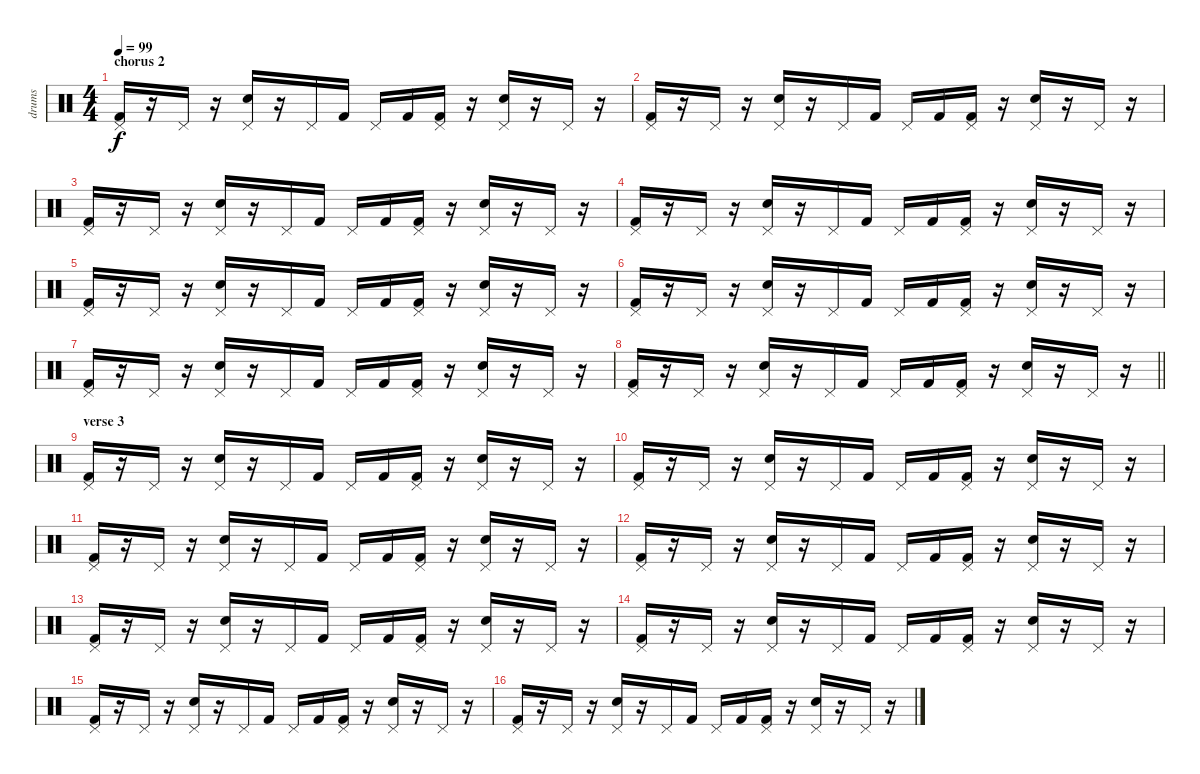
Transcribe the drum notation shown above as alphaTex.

\track ("drums" "drums") {instrument percussion}
\staff {score}
\articulation defaults
\ts (4 4)
\section ("" "chorus 2")
\tempo 99
\clef neutral
\ks c
("Kick (hit) 2" "Pedal Hi-Hat (hit)").16{dy f} r.16 "Pedal Hi-Hat (hit)".16 r.16 ("Snare (hit) 2" "Pedal Hi-Hat (hit)").16 r.16 "Pedal Hi-Hat (hit)".16 "Kick (hit) 2".16 "Pedal Hi-Hat (hit)".16 "Kick (hit) 2".16 ("Kick (hit) 2" "Pedal Hi-Hat (hit)").16 r.16 ("Snare (hit) 2" "Pedal Hi-Hat (hit)").16 r.16 "Pedal Hi-Hat (hit)".16 r.16 |
("Kick (hit) 2" "Pedal Hi-Hat (hit)").16 r.16 "Pedal Hi-Hat (hit)".16 r.16 ("Snare (hit) 2" "Pedal Hi-Hat (hit)").16 r.16 "Pedal Hi-Hat (hit)".16 "Kick (hit) 2".16 "Pedal Hi-Hat (hit)".16 "Kick (hit) 2".16 ("Kick (hit) 2" "Pedal Hi-Hat (hit)").16 r.16 ("Snare (hit) 2" "Pedal Hi-Hat (hit)").16 r.16 "Pedal Hi-Hat (hit)".16 r.16 |
("Kick (hit) 2" "Pedal Hi-Hat (hit)").16 r.16 "Pedal Hi-Hat (hit)".16 r.16 ("Snare (hit) 2" "Pedal Hi-Hat (hit)").16 r.16 "Pedal Hi-Hat (hit)".16 "Kick (hit) 2".16 "Pedal Hi-Hat (hit)".16 "Kick (hit) 2".16 ("Kick (hit) 2" "Pedal Hi-Hat (hit)").16 r.16 ("Snare (hit) 2" "Pedal Hi-Hat (hit)").16 r.16 "Pedal Hi-Hat (hit)".16 r.16 |
("Kick (hit) 2" "Pedal Hi-Hat (hit)").16 r.16 "Pedal Hi-Hat (hit)".16 r.16 ("Snare (hit) 2" "Pedal Hi-Hat (hit)").16 r.16 "Pedal Hi-Hat (hit)".16 "Kick (hit) 2".16 "Pedal Hi-Hat (hit)".16 "Kick (hit) 2".16 ("Kick (hit) 2" "Pedal Hi-Hat (hit)").16 r.16 ("Snare (hit) 2" "Pedal Hi-Hat (hit)").16 r.16 "Pedal Hi-Hat (hit)".16 r.16 |
("Kick (hit) 2" "Pedal Hi-Hat (hit)").16 r.16 "Pedal Hi-Hat (hit)".16 r.16 ("Snare (hit) 2" "Pedal Hi-Hat (hit)").16 r.16 "Pedal Hi-Hat (hit)".16 "Kick (hit) 2".16 "Pedal Hi-Hat (hit)".16 "Kick (hit) 2".16 ("Kick (hit) 2" "Pedal Hi-Hat (hit)").16 r.16 ("Snare (hit) 2" "Pedal Hi-Hat (hit)").16 r.16 "Pedal Hi-Hat (hit)".16 r.16 |
("Kick (hit) 2" "Pedal Hi-Hat (hit)").16 r.16 "Pedal Hi-Hat (hit)".16 r.16 ("Snare (hit) 2" "Pedal Hi-Hat (hit)").16 r.16 "Pedal Hi-Hat (hit)".16 "Kick (hit) 2".16 "Pedal Hi-Hat (hit)".16 "Kick (hit) 2".16 ("Kick (hit) 2" "Pedal Hi-Hat (hit)").16 r.16 ("Snare (hit) 2" "Pedal Hi-Hat (hit)").16 r.16 "Pedal Hi-Hat (hit)".16 r.16 |
("Kick (hit) 2" "Pedal Hi-Hat (hit)").16 r.16 "Pedal Hi-Hat (hit)".16 r.16 ("Snare (hit) 2" "Pedal Hi-Hat (hit)").16 r.16 "Pedal Hi-Hat (hit)".16 "Kick (hit) 2".16 "Pedal Hi-Hat (hit)".16 "Kick (hit) 2".16 ("Kick (hit) 2" "Pedal Hi-Hat (hit)").16 r.16 ("Snare (hit) 2" "Pedal Hi-Hat (hit)").16 r.16 "Pedal Hi-Hat (hit)".16 r.16 |
\barLineRight lightlight
("Kick (hit) 2" "Pedal Hi-Hat (hit)").16 r.16 "Pedal Hi-Hat (hit)".16 r.16 ("Snare (hit) 2" "Pedal Hi-Hat (hit)").16 r.16 "Pedal Hi-Hat (hit)".16 "Kick (hit) 2".16 "Pedal Hi-Hat (hit)".16 "Kick (hit) 2".16 ("Kick (hit) 2" "Pedal Hi-Hat (hit)").16 r.16 ("Snare (hit) 2" "Pedal Hi-Hat (hit)").16 r.16 "Pedal Hi-Hat (hit)".16 r.16 |
\section ("" "verse 3")
("Kick (hit) 2" "Pedal Hi-Hat (hit)").16 r.16 "Pedal Hi-Hat (hit)".16 r.16 ("Snare (hit) 2" "Pedal Hi-Hat (hit)").16 r.16 "Pedal Hi-Hat (hit)".16 "Kick (hit) 2".16 "Pedal Hi-Hat (hit)".16 "Kick (hit) 2".16 ("Kick (hit) 2" "Pedal Hi-Hat (hit)").16 r.16 ("Snare (hit) 2" "Pedal Hi-Hat (hit)").16 r.16 "Pedal Hi-Hat (hit)".16 r.16 |
("Kick (hit) 2" "Pedal Hi-Hat (hit)").16 r.16 "Pedal Hi-Hat (hit)".16 r.16 ("Snare (hit) 2" "Pedal Hi-Hat (hit)").16 r.16 "Pedal Hi-Hat (hit)".16 "Kick (hit) 2".16 "Pedal Hi-Hat (hit)".16 "Kick (hit) 2".16 ("Kick (hit) 2" "Pedal Hi-Hat (hit)").16 r.16 ("Snare (hit) 2" "Pedal Hi-Hat (hit)").16 r.16 "Pedal Hi-Hat (hit)".16 r.16 |
("Kick (hit) 2" "Pedal Hi-Hat (hit)").16 r.16 "Pedal Hi-Hat (hit)".16 r.16 ("Snare (hit) 2" "Pedal Hi-Hat (hit)").16 r.16 "Pedal Hi-Hat (hit)".16 "Kick (hit) 2".16 "Pedal Hi-Hat (hit)".16 "Kick (hit) 2".16 ("Kick (hit) 2" "Pedal Hi-Hat (hit)").16 r.16 ("Snare (hit) 2" "Pedal Hi-Hat (hit)").16 r.16 "Pedal Hi-Hat (hit)".16 r.16 |
("Kick (hit) 2" "Pedal Hi-Hat (hit)").16 r.16 "Pedal Hi-Hat (hit)".16 r.16 ("Snare (hit) 2" "Pedal Hi-Hat (hit)").16 r.16 "Pedal Hi-Hat (hit)".16 "Kick (hit) 2".16 "Pedal Hi-Hat (hit)".16 "Kick (hit) 2".16 ("Kick (hit) 2" "Pedal Hi-Hat (hit)").16 r.16 ("Snare (hit) 2" "Pedal Hi-Hat (hit)").16 r.16 "Pedal Hi-Hat (hit)".16 r.16 |
("Kick (hit) 2" "Pedal Hi-Hat (hit)").16 r.16 "Pedal Hi-Hat (hit)".16 r.16 ("Snare (hit) 2" "Pedal Hi-Hat (hit)").16 r.16 "Pedal Hi-Hat (hit)".16 "Kick (hit) 2".16 "Pedal Hi-Hat (hit)".16 "Kick (hit) 2".16 ("Kick (hit) 2" "Pedal Hi-Hat (hit)").16 r.16 ("Snare (hit) 2" "Pedal Hi-Hat (hit)").16 r.16 "Pedal Hi-Hat (hit)".16 r.16 |
("Kick (hit) 2" "Pedal Hi-Hat (hit)").16 r.16 "Pedal Hi-Hat (hit)".16 r.16 ("Snare (hit) 2" "Pedal Hi-Hat (hit)").16 r.16 "Pedal Hi-Hat (hit)".16 "Kick (hit) 2".16 "Pedal Hi-Hat (hit)".16 "Kick (hit) 2".16 ("Kick (hit) 2" "Pedal Hi-Hat (hit)").16 r.16 ("Snare (hit) 2" "Pedal Hi-Hat (hit)").16 r.16 "Pedal Hi-Hat (hit)".16 r.16 |
("Kick (hit) 2" "Pedal Hi-Hat (hit)").16 r.16 "Pedal Hi-Hat (hit)".16 r.16 ("Snare (hit) 2" "Pedal Hi-Hat (hit)").16 r.16 "Pedal Hi-Hat (hit)".16 "Kick (hit) 2".16 "Pedal Hi-Hat (hit)".16 "Kick (hit) 2".16 ("Kick (hit) 2" "Pedal Hi-Hat (hit)").16 r.16 ("Snare (hit) 2" "Pedal Hi-Hat (hit)").16 r.16 "Pedal Hi-Hat (hit)".16 r.16 |
("Kick (hit) 2" "Pedal Hi-Hat (hit)").16 r.16 "Pedal Hi-Hat (hit)".16 r.16 ("Snare (hit) 2" "Pedal Hi-Hat (hit)").16 r.16 "Pedal Hi-Hat (hit)".16 "Kick (hit) 2".16 "Pedal Hi-Hat (hit)".16 "Kick (hit) 2".16 ("Kick (hit) 2" "Pedal Hi-Hat (hit)").16 r.16 ("Snare (hit) 2" "Pedal Hi-Hat (hit)").16 r.16 "Pedal Hi-Hat (hit)".16 r.16
